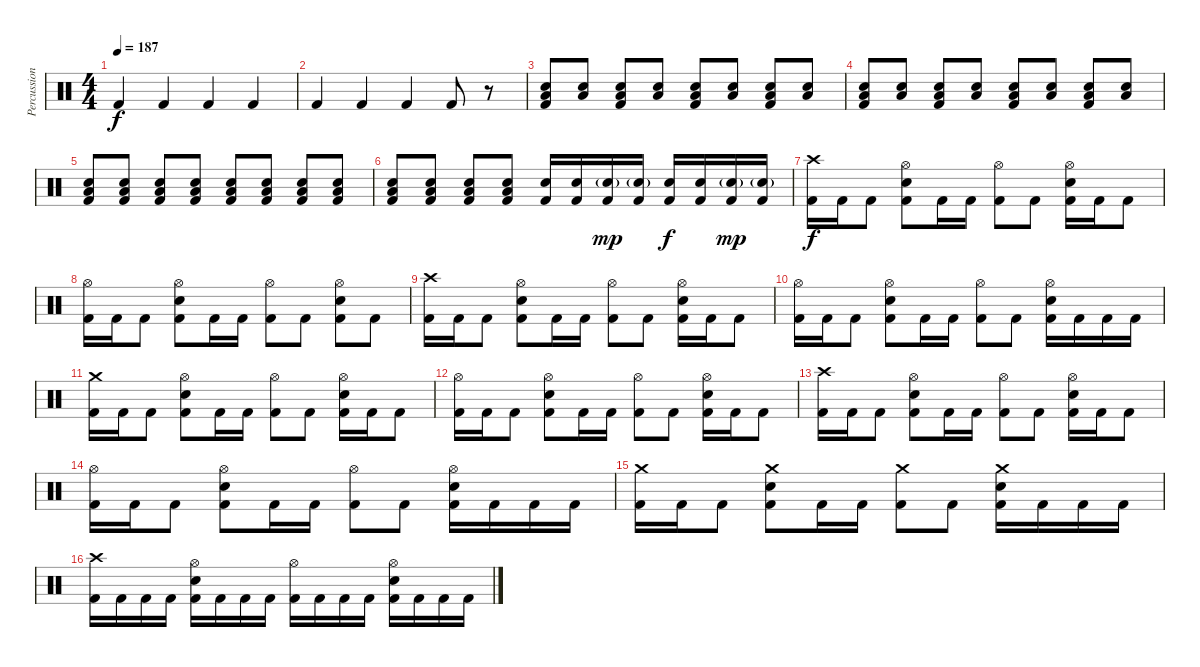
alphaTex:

\track ("Percussion" "Percussion") {instrument percussion}
\staff {score}
\articulation defaults
\ts (4 4)
\tempo 187
\clef neutral
\ks c "Kick (hit) 2".4{dy f} "Kick (hit) 2".4 "Kick (hit) 2".4 "Kick (hit) 2".4
|
"Kick (hit) 2".4 "Kick (hit) 2".4 "Kick (hit) 2".4 "Kick (hit) 2".8 r.8{volume 5} |
("Electric Snare (hit)" "Low Floor Tom (hit)" "Kick (hit) 2").8{volume 10} ("Electric Snare (hit)" "Low Floor Tom (hit)").8 ("Electric Snare (hit)" "Low Floor Tom (hit)" "Kick (hit) 2").8 ("Electric Snare (hit)" "Low Floor Tom (hit)").8 ("Electric Snare (hit)" "Low Floor Tom (hit)" "Kick (hit) 2").8 ("Electric Snare (hit)" "Low Floor Tom (hit)").8 ("Electric Snare (hit)" "Low Floor Tom (hit)" "Kick (hit) 2").8 ("Electric Snare (hit)" "Low Floor Tom (hit)").8 |
("Electric Snare (hit)" "Low Floor Tom (hit)" "Kick (hit) 2").8 ("Electric Snare (hit)" "Low Floor Tom (hit)").8 ("Electric Snare (hit)" "Low Floor Tom (hit)" "Kick (hit) 2").8 ("Electric Snare (hit)" "Low Floor Tom (hit)").8 ("Electric Snare (hit)" "Low Floor Tom (hit)" "Kick (hit) 2").8 ("Electric Snare (hit)" "Low Floor Tom (hit)").8 ("Electric Snare (hit)" "Low Floor Tom (hit)" "Kick (hit) 2").8 ("Electric Snare (hit)" "Low Floor Tom (hit)").8 |
("Electric Snare (hit)" "Low Floor Tom (hit)" "Kick (hit) 2").8 ("Electric Snare (hit)" "Low Floor Tom (hit)" "Kick (hit) 2").8 ("Electric Snare (hit)" "Low Floor Tom (hit)" "Kick (hit) 2").8 ("Electric Snare (hit)" "Low Floor Tom (hit)" "Kick (hit) 2").8 ("Electric Snare (hit)" "Low Floor Tom (hit)" "Kick (hit) 2").8 ("Electric Snare (hit)" "Low Floor Tom (hit)" "Kick (hit) 2").8 ("Electric Snare (hit)" "Low Floor Tom (hit)" "Kick (hit) 2").8 ("Electric Snare (hit)" "Low Floor Tom (hit)" "Kick (hit) 2").8 |
("Electric Snare (hit)" "Low Floor Tom (hit)" "Kick (hit) 2").8 ("Electric Snare (hit)" "Low Floor Tom (hit)" "Kick (hit) 2").8 ("Electric Snare (hit)" "Low Floor Tom (hit)" "Kick (hit) 2").8 ("Electric Snare (hit)" "Low Floor Tom (hit)" "Kick (hit) 2").8 ("Electric Snare (hit)" "Kick (hit) 2").16 ("Electric Snare (hit)" "Kick (hit) 2").16 ("Electric Snare (hit)"{g} "Kick (hit) 2").16{dy mp} ("Electric Snare (hit)"{g} "Kick (hit) 2").16 ("Electric Snare (hit)" "Kick (hit) 2").16{dy f} ("Electric Snare (hit)" "Kick (hit) 2").16 ("Electric Snare (hit)"{g} "Kick (hit) 2").16{dy mp} ("Electric Snare (hit)"{g} "Kick (hit) 2").16 |
("Crash high (hit)" "Kick (hit) 2").16{dy f} "Kick (hit) 2".16 "Kick (hit) 2".8 ("Hi-Hat (open)" "Electric Snare (hit)" "Kick (hit) 2").8 "Kick (hit) 2".16 "Kick (hit) 2".16 ("Hi-Hat (open)" "Kick (hit) 2").8 "Kick (hit) 2".8 ("Hi-Hat (open)" "Electric Snare (hit)" "Kick (hit) 2").16 "Kick (hit) 2".16 "Kick (hit) 2".8 |
("Hi-Hat (open)" "Kick (hit) 2").16 "Kick (hit) 2".16 "Kick (hit) 2".8 ("Hi-Hat (open)" "Electric Snare (hit)" "Kick (hit) 2").8 "Kick (hit) 2".16 "Kick (hit) 2".16 ("Hi-Hat (open)" "Kick (hit) 2").8 "Kick (hit) 2".8 ("Hi-Hat (open)" "Electric Snare (hit)" "Kick (hit) 2").8 "Kick (hit) 2".8 |
("Crash high (hit)" "Kick (hit) 2").16 "Kick (hit) 2".16 "Kick (hit) 2".8 ("Hi-Hat (open)" "Electric Snare (hit)" "Kick (hit) 2").8 "Kick (hit) 2".16 "Kick (hit) 2".16 ("Hi-Hat (open)" "Kick (hit) 2").8 "Kick (hit) 2".8 ("Hi-Hat (open)" "Electric Snare (hit)" "Kick (hit) 2").16 "Kick (hit) 2".16 "Kick (hit) 2".8 |
("Hi-Hat (open)" "Kick (hit) 2").16 "Kick (hit) 2".16 "Kick (hit) 2".8 ("Hi-Hat (open)" "Electric Snare (hit)" "Kick (hit) 2").8 "Kick (hit) 2".16 "Kick (hit) 2".16 ("Hi-Hat (open)" "Kick (hit) 2").8 "Kick (hit) 2".8 ("Hi-Hat (open)" "Electric Snare (hit)" "Kick (hit) 2").16 "Kick (hit) 2".16 "Kick (hit) 2".16 "Kick (hit) 2".16 |
("Crash medium (hit)" "Kick (hit) 2").16 "Kick (hit) 2".16 "Kick (hit) 2".8 ("Hi-Hat (open)" "Electric Snare (hit)" "Kick (hit) 2").8 "Kick (hit) 2".16 "Kick (hit) 2".16 ("Hi-Hat (open)" "Kick (hit) 2").8 "Kick (hit) 2".8 ("Hi-Hat (open)" "Electric Snare (hit)" "Kick (hit) 2").16 "Kick (hit) 2".16 "Kick (hit) 2".8 |
("Hi-Hat (open)" "Kick (hit) 2").16 "Kick (hit) 2".16 "Kick (hit) 2".8 ("Hi-Hat (open)" "Electric Snare (hit)" "Kick (hit) 2").8 "Kick (hit) 2".16 "Kick (hit) 2".16 ("Hi-Hat (open)" "Kick (hit) 2").8 "Kick (hit) 2".8 ("Hi-Hat (open)" "Electric Snare (hit)" "Kick (hit) 2").16 "Kick (hit) 2".16 "Kick (hit) 2".8 |
("Crash high (hit)" "Kick (hit) 2").16 "Kick (hit) 2".16 "Kick (hit) 2".8 ("Hi-Hat (open)" "Electric Snare (hit)" "Kick (hit) 2").8 "Kick (hit) 2".16 "Kick (hit) 2".16 ("Hi-Hat (open)" "Kick (hit) 2").8 "Kick (hit) 2".8 ("Hi-Hat (open)" "Electric Snare (hit)" "Kick (hit) 2").16 "Kick (hit) 2".16 "Kick (hit) 2".8 |
("Hi-Hat (open)" "Kick (hit) 2").16 "Kick (hit) 2".16 "Kick (hit) 2".8 ("Hi-Hat (open)" "Electric Snare (hit)" "Kick (hit) 2").8 "Kick (hit) 2".16 "Kick (hit) 2".16 ("Hi-Hat (open)" "Kick (hit) 2").8 "Kick (hit) 2".8 ("Hi-Hat (open)" "Electric Snare (hit)" "Kick (hit) 2").16 "Kick (hit) 2".16 "Kick (hit) 2".16 "Kick (hit) 2".16 |
("Crash medium (hit)" "Kick (hit) 2").16 "Kick (hit) 2".16 "Kick (hit) 2".8 ("Crash medium (hit)" "Electric Snare (hit)" "Kick (hit) 2").8 "Kick (hit) 2".16 "Kick (hit) 2".16 ("Crash medium (hit)" "Kick (hit) 2").8 "Kick (hit) 2".8 ("Crash medium (hit)" "Electric Snare (hit)" "Kick (hit) 2").16 "Kick (hit) 2".16 "Kick (hit) 2".16 "Kick (hit) 2".16 |
("Crash high (hit)" "Kick (hit) 2").16 "Kick (hit) 2".16 "Kick (hit) 2".16 "Kick (hit) 2".16 ("Hi-Hat (open)" "Electric Snare (hit)" "Kick (hit) 2").16 "Kick (hit) 2".16 "Kick (hit) 2".16 "Kick (hit) 2".16 ("Hi-Hat (open)" "Kick (hit) 2").16 "Kick (hit) 2".16 "Kick (hit) 2".16 "Kick (hit) 2".16 ("Hi-Hat (open)" "Electric Snare (hit)" "Kick (hit) 2").16 "Kick (hit) 2".16 "Kick (hit) 2".16 "Kick (hit) 2".16
